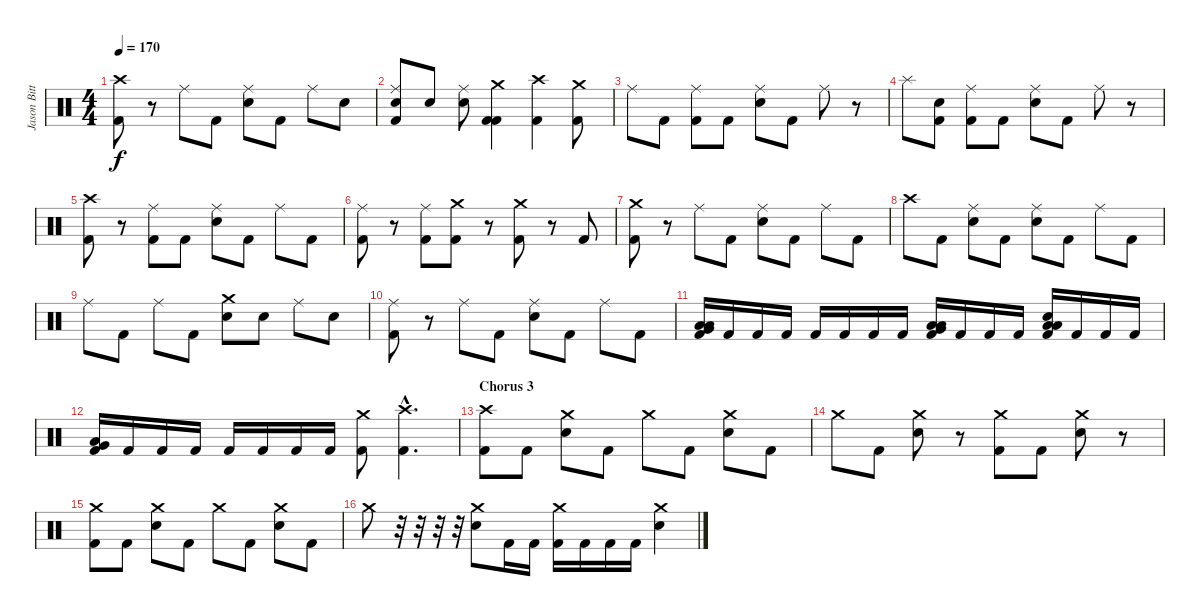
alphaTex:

\track ("Jason Bittner" "Jason Bitt") {instrument percussion}
\staff {score}
\articulation defaults
\ts (4 4)
\tempo 170
\clef neutral
\ks c
("Crash high (hit)" "Kick (hit) 2").8{dy f} r.8 "Ride (middle)".8 "Kick (hit) 2".8 ("Ride (middle)" "Electric Snare (hit)").8 "Kick (hit) 2".8 "Ride (middle)".8 "Electric Snare (hit)".8 |
("Ride (middle)" "Electric Snare (hit)" "Kick (hit) 2").8 "Electric Snare (hit)".8 ("Ride (middle)" "Electric Snare (hit)").8 ("Crash medium (hit)" "Kick (hit) 2" "Kick (hit) 2").4 ("Crash high (hit)" "Kick (hit) 2").4 ("Crash medium (hit)" "Kick (hit) 2").8 |
"Ride (middle)".8 "Kick (hit) 2".8 ("Ride (middle)" "Kick (hit) 2").8 "Kick (hit) 2".8 ("Ride (middle)" "Electric Snare (hit)").8 "Kick (hit) 2".8 "Ride (middle)".8 r.8 |
"Splash (hit)".8 ("Snare (hit)" "Kick (hit) 2").8 ("Ride (middle)" "Kick (hit) 2").8 "Kick (hit) 2".8 ("Ride (middle)" "Electric Snare (hit)").8 "Kick (hit) 2".8 "Ride (middle)".8 r.8 |
("Crash high (hit)" "Kick (hit) 2").8 r.8 ("Ride (middle)" "Kick (hit) 2").8 "Kick (hit) 2".8 ("Ride (middle)" "Electric Snare (hit)").8 "Kick (hit) 2".8 "Ride (middle)".8 "Kick (hit) 2".8 |
("Ride (middle)" "Kick (hit) 2").8 r.8 ("Ride (middle)" "Kick (hit) 2").8 ("Crash medium (hit)" "Kick (hit) 2").8 r.8 ("Crash medium (hit)" "Kick (hit) 2").8 r.8 "Kick (hit) 2".8 |
("Crash medium (hit)" "Kick (hit) 2").8 r.8 "Ride (middle)".8 "Kick (hit) 2".8 ("Ride (middle)" "Electric Snare (hit)").8 "Kick (hit) 2".8 "Ride (middle)".8 "Kick (hit) 2".8 |
"Crash high (hit)".8 "Kick (hit) 2".8 ("Ride (middle)" "Electric Snare (hit)").8 "Kick (hit) 2".8 ("Ride (middle)" "Electric Snare (hit)").8 "Kick (hit) 2".8 "Ride (middle)".8 "Kick (hit) 2".8 |
"Ride (middle)".8 "Kick (hit) 2".8 "Ride (middle)".8 "Kick (hit) 2".8 ("Crash medium (hit)" "Electric Snare (hit)").8 "Electric Snare (hit)".8 "Ride (middle)".8 "Electric Snare (hit)".8 |
("Ride (middle)" "Kick (hit) 2").8 r.8 "Ride (middle)".8 "Kick (hit) 2".8 ("Ride (middle)" "Electric Snare (hit)").8 "Kick (hit) 2".8 "Ride (middle)".8 "Kick (hit) 2".8 |
("Low Floor Tom (hit)" "Very Low Tom (hit)" "Low Tom (hit)" "Kick (hit) 2").16 "Kick (hit) 2".16 "Kick (hit) 2".16 "Kick (hit) 2".16 "Kick (hit) 2".16 "Kick (hit) 2".16 "Kick (hit) 2".16 "Kick (hit) 2".16 ("Low Floor Tom (hit)" "Very Low Tom (hit)" "Low Tom (hit)" "Kick (hit) 2").16 "Kick (hit) 2".16 "Kick (hit) 2".16 "Kick (hit) 2".16 ("Low Tom (hit)" "Low Tom (hit)" "Snare (hit)" "Kick (hit) 2").16 "Kick (hit) 2".16 "Kick (hit) 2".16 "Kick (hit) 2".16 |
("Very Low Tom (hit)" "Low Tom (hit)" "Kick (hit) 2").16 "Kick (hit) 2".16 "Kick (hit) 2".16 "Kick (hit) 2".16 "Kick (hit) 2".16 "Kick (hit) 2".16 "Kick (hit) 2".16 "Kick (hit) 2".16 ("Crash medium (hit)" "Kick (hit) 2").8 ("Crash high (hit)"{hac} "Kick (hit) 2"{hac}).4{d} |
\section ("" "Chorus 3")
("Crash high (hit)" "Kick (hit) 2").8 "Kick (hit) 2".8 ("Crash medium (hit)" "Electric Snare (hit)").8 "Kick (hit) 2".8 "Crash medium (hit)".8 "Kick (hit) 2".8 ("Crash medium (hit)" "Electric Snare (hit)").8 "Kick (hit) 2".8 |
"Crash medium (hit)".8 "Kick (hit) 2".8 ("Crash medium (hit)" "Electric Snare (hit)").8 r.8 ("Crash medium (hit)" "Kick (hit) 2").8 "Kick (hit) 2".8 ("Crash medium (hit)" "Electric Snare (hit)").8 r.8 |
("Crash medium (hit)" "Kick (hit) 2").8 "Kick (hit) 2".8 ("Crash medium (hit)" "Electric Snare (hit)").8 "Kick (hit) 2".8 "Crash medium (hit)".8 "Kick (hit) 2".8 ("Crash medium (hit)" "Electric Snare (hit)").8 "Kick (hit) 2".8 |
"Crash medium (hit)".8 r.32 r.32 r.32 r.32 ("Crash medium (hit)" "Electric Snare (hit)").8 "Kick (hit) 2".16 "Kick (hit) 2".16 ("Crash medium (hit)" "Kick (hit) 2").16 "Kick (hit) 2".16 "Kick (hit) 2".16 "Kick (hit) 2".16 ("Crash medium (hit)" "Electric Snare (hit)").4
